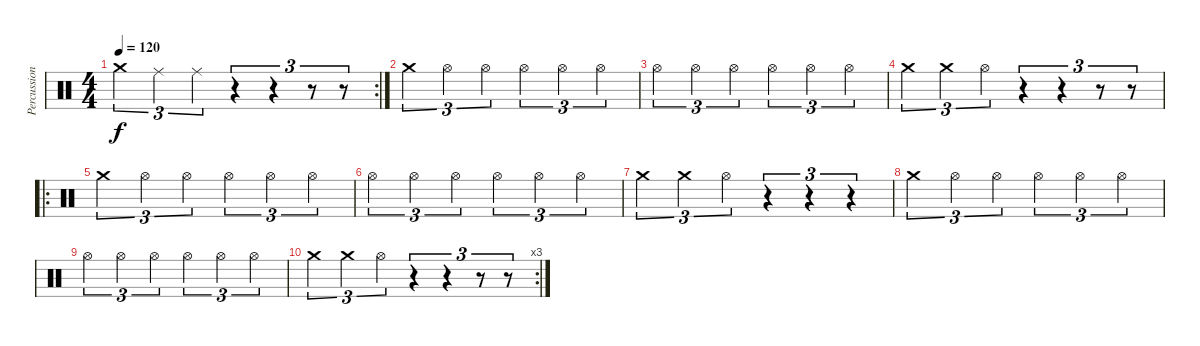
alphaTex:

\track ("Percussion" "Percussion") {instrument percussion}
\staff {score}
\articulation defaults
\rc 2
\ts (4 4)
\tempo 120
\clef neutral
\ks c "Crash medium (hit)".4{tu (3 2) dy f} "Ride (middle)".4{tu (3 2)} "Ride (middle)".4{tu (3 2)}
r.4{tu (3 2)} r.4{tu (3 2)} r.8{tu (3 2)} r.8{tu (3 2)} |
"Crash medium (hit)".4{tu (3 2)} "Hi-Hat (open)".4{tu (3 2)} "Hi-Hat (open)".4{tu (3 2)} "Hi-Hat (open)".4{tu (3 2)} "Hi-Hat (open)".4{tu (3 2)} "Hi-Hat (open)".4{tu (3 2)} |
"Hi-Hat (open)".4{tu (3 2)} "Hi-Hat (open)".4{tu (3 2)} "Hi-Hat (open)".4{tu (3 2)} "Hi-Hat (open)".4{tu (3 2)} "Hi-Hat (open)".4{tu (3 2)} "Hi-Hat (open)".4{tu (3 2)} |
"Crash medium (hit)".4{tu (3 2)} "Crash medium (hit)".4{tu (3 2)} "Hi-Hat (open)".4{tu (3 2)} r.4{tu (3 2)} r.4{tu (3 2)} r.8{tu (3 2)} r.8{tu (3 2)} |
\ro "Crash medium (hit)".4{tu (3 2)} "Hi-Hat (open)".4{tu (3 2)} "Hi-Hat (open)".4{tu (3 2)} "Hi-Hat (open)".4{tu (3 2)} "Hi-Hat (open)".4{tu (3 2)} "Hi-Hat (open)".4{tu (3 2)}
|
"Hi-Hat (open)".4{tu (3 2)} "Hi-Hat (open)".4{tu (3 2)} "Hi-Hat (open)".4{tu (3 2)} "Hi-Hat (open)".4{tu (3 2)} "Hi-Hat (open)".4{tu (3 2)} "Hi-Hat (open)".4{tu (3 2)} |
"Crash medium (hit)".4{tu (3 2)} "Crash medium (hit)".4{tu (3 2)} "Hi-Hat (open)".4{tu (3 2)} r.4{tu (3 2)} r.4{tu (3 2)} r.4{tu (3 2)} |
"Crash medium (hit)".4{tu (3 2)} "Hi-Hat (open)".4{tu (3 2)} "Hi-Hat (open)".4{tu (3 2)} "Hi-Hat (open)".4{tu (3 2)} "Hi-Hat (open)".4{tu (3 2)} "Hi-Hat (open)".4{tu (3 2)} |
"Hi-Hat (open)".4{tu (3 2)} "Hi-Hat (open)".4{tu (3 2)} "Hi-Hat (open)".4{tu (3 2)} "Hi-Hat (open)".4{tu (3 2)} "Hi-Hat (open)".4{tu (3 2)} "Hi-Hat (open)".4{tu (3 2)} |
\rc 3 "Crash medium (hit)".4{tu (3 2)} "Crash medium (hit)".4{tu (3 2)} "Hi-Hat (open)".4{tu (3 2)}
r.4{tu (3 2)} r.4{tu (3 2)} r.8{tu (3 2)} r.8{tu (3 2)}
